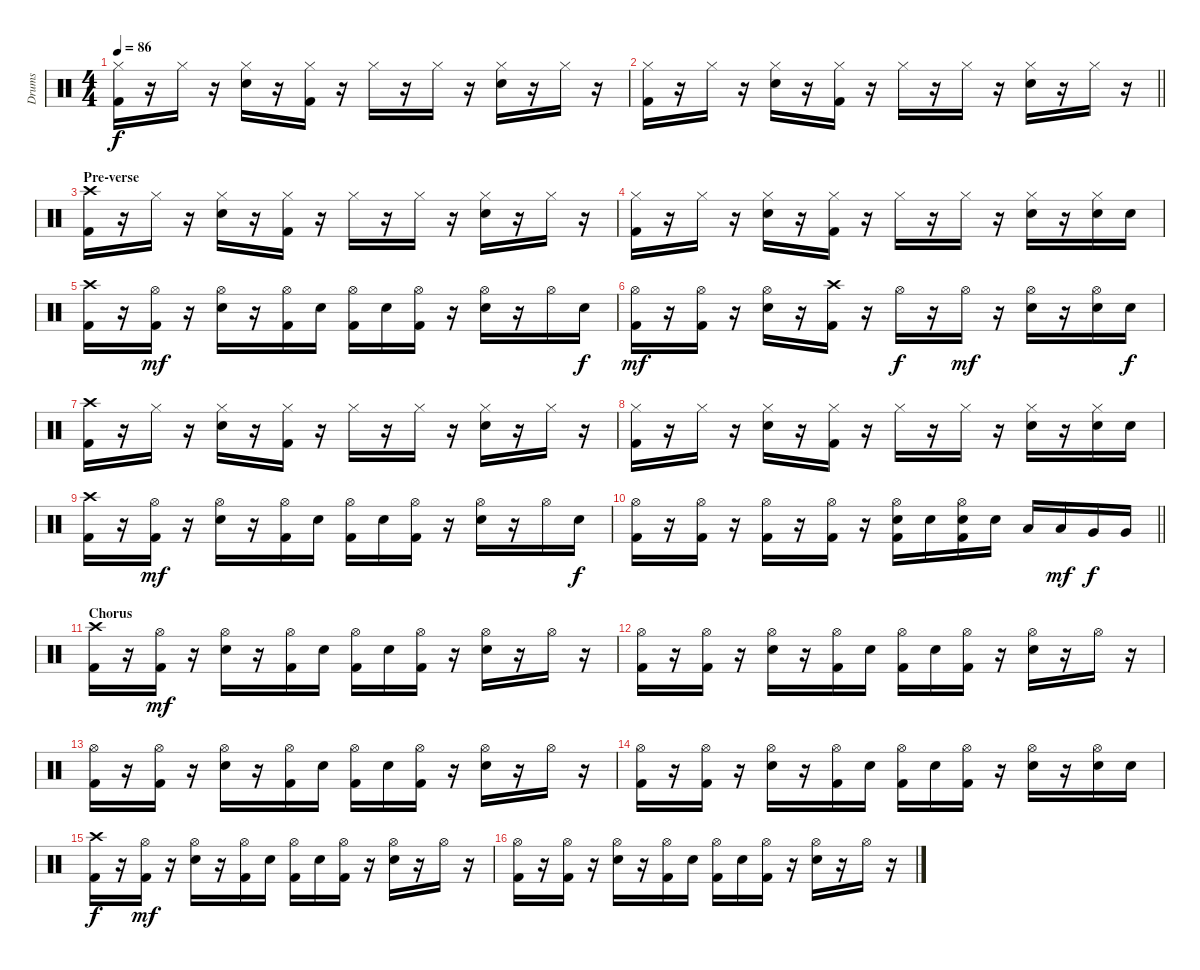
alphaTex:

\track ("Drums" "Drums") {instrument percussion}
\staff {score}
\articulation defaults
\ts (4 4)
\tempo 86
\clef neutral
\ks c
("Hi-Hat (closed)" "Kick (hit) 2").16{dy f} r.16 "Hi-Hat (closed)".16 r.16 ("Hi-Hat (closed)" "Electric Snare (hit)").16 r.16 ("Hi-Hat (closed)" "Kick (hit) 2").16 r.16 "Hi-Hat (closed)".16 r.16 "Hi-Hat (closed)".16 r.16 ("Hi-Hat (closed)" "Electric Snare (hit)").16 r.16 "Hi-Hat (closed)".16 r.16 |
\barLineRight lightlight
("Hi-Hat (closed)" "Kick (hit) 2").16 r.16 "Hi-Hat (closed)".16 r.16 ("Hi-Hat (closed)" "Electric Snare (hit)").16 r.16 ("Hi-Hat (closed)" "Kick (hit) 2").16 r.16 "Hi-Hat (closed)".16 r.16 "Hi-Hat (closed)".16 r.16 ("Hi-Hat (closed)" "Electric Snare (hit)").16 r.16 "Hi-Hat (closed)".16 r.16 |
\section ("" "Pre-verse")
("Crash high (hit)" "Kick (hit) 2").16 r.16 "Hi-Hat (closed)".16 r.16 ("Hi-Hat (closed)" "Electric Snare (hit)").16 r.16 ("Hi-Hat (closed)" "Kick (hit) 2").16 r.16 "Hi-Hat (closed)".16 r.16 "Hi-Hat (closed)".16 r.16 ("Hi-Hat (closed)" "Electric Snare (hit)").16 r.16 "Hi-Hat (closed)".16 r.16 |
("Hi-Hat (closed)" "Kick (hit) 2").16 r.16 "Hi-Hat (closed)".16 r.16 ("Hi-Hat (closed)" "Electric Snare (hit)").16 r.16 ("Hi-Hat (closed)" "Kick (hit) 2").16 r.16 "Hi-Hat (closed)".16 r.16 "Hi-Hat (closed)".16 r.16 ("Hi-Hat (closed)" "Electric Snare (hit)").16 r.16 ("Hi-Hat (closed)" "Electric Snare (hit)").16 "Electric Snare (hit)".16 |
("Crash high (hit)" "Kick (hit) 2").16 r.16 ("Hi-Hat (open)" "Kick (hit) 2").16{dy mf} r.16 ("Hi-Hat (open)" "Electric Snare (hit)").16 r.16 ("Hi-Hat (open)" "Kick (hit) 2").16 "Electric Snare (hit)".16 ("Hi-Hat (open)" "Kick (hit) 2").16 "Electric Snare (hit)".16 ("Hi-Hat (open)" "Kick (hit) 2").16 r.16 ("Hi-Hat (open)" "Electric Snare (hit)").16 r.16 "Hi-Hat (open)".16 "Electric Snare (hit)".16{dy f} |
("Hi-Hat (open)" "Kick (hit) 2").16{dy mf} r.16 ("Hi-Hat (open)" "Kick (hit) 2").16 r.16 ("Hi-Hat (open)" "Electric Snare (hit)").16 r.16 ("Crash high (hit)" "Kick (hit) 2").16 r.16 "Hi-Hat (open)".16{dy f} r.16 "Hi-Hat (open)".16{dy mf} r.16 ("Hi-Hat (open)" "Electric Snare (hit)").16 r.16 ("Hi-Hat (open)" "Electric Snare (hit)").16 "Electric Snare (hit)".16{dy f} |
("Crash high (hit)" "Kick (hit) 2").16 r.16 "Hi-Hat (closed)".16 r.16 ("Hi-Hat (closed)" "Electric Snare (hit)").16 r.16 ("Hi-Hat (closed)" "Kick (hit) 2").16 r.16 "Hi-Hat (closed)".16 r.16 "Hi-Hat (closed)".16 r.16 ("Hi-Hat (closed)" "Electric Snare (hit)").16 r.16 "Hi-Hat (closed)".16 r.16 |
("Hi-Hat (closed)" "Kick (hit) 2").16 r.16 "Hi-Hat (closed)".16 r.16 ("Hi-Hat (closed)" "Electric Snare (hit)").16 r.16 ("Hi-Hat (closed)" "Kick (hit) 2").16 r.16 "Hi-Hat (closed)".16 r.16 "Hi-Hat (closed)".16 r.16 ("Hi-Hat (closed)" "Electric Snare (hit)").16 r.16 ("Hi-Hat (closed)" "Electric Snare (hit)").16 "Electric Snare (hit)".16 |
("Crash high (hit)" "Kick (hit) 2").16 r.16 ("Hi-Hat (open)" "Kick (hit) 2").16{dy mf} r.16 ("Hi-Hat (open)" "Electric Snare (hit)").16 r.16 ("Hi-Hat (open)" "Kick (hit) 2").16 "Electric Snare (hit)".16 ("Hi-Hat (open)" "Kick (hit) 2").16 "Electric Snare (hit)".16 ("Hi-Hat (open)" "Kick (hit) 2").16 r.16 ("Hi-Hat (open)" "Electric Snare (hit)").16 r.16 "Hi-Hat (open)".16 "Electric Snare (hit)".16{dy f} |
\barLineRight lightlight
("Hi-Hat (open)" "Kick (hit) 2").16 r.16 ("Hi-Hat (open)" "Kick (hit) 2").16 r.16 ("Hi-Hat (open)" "Kick (hit) 2").16 r.16 ("Hi-Hat (open)" "Kick (hit) 2").16 r.16 ("Hi-Hat (open)" "Electric Snare (hit)" "Kick (hit) 2").16 "Electric Snare (hit)".16 ("Hi-Hat (open)" "Electric Snare (hit)" "Kick (hit) 2").16 "Electric Snare (hit)".16 "Low Tom (hit)".16 "Low Tom (hit)".16{dy mf} "Very Low Tom (hit)".16{dy f} "Very Low Tom (hit)".16 |
\section ("" "Chorus")
("Crash high (hit)" "Kick (hit) 2").16 r.16 ("Hi-Hat (open)" "Kick (hit) 2").16{dy mf} r.16 ("Hi-Hat (open)" "Electric Snare (hit)").16 r.16 ("Hi-Hat (open)" "Kick (hit) 2").16 "Electric Snare (hit)".16 ("Hi-Hat (open)" "Kick (hit) 2").16 "Electric Snare (hit)".16 ("Hi-Hat (open)" "Kick (hit) 2").16 r.16 ("Hi-Hat (open)" "Electric Snare (hit)").16 r.16 "Hi-Hat (open)".16 r.16 |
("Hi-Hat (open)" "Kick (hit) 2").16 r.16 ("Hi-Hat (open)" "Kick (hit) 2").16 r.16 ("Hi-Hat (open)" "Electric Snare (hit)").16 r.16 ("Hi-Hat (open)" "Kick (hit) 2").16 "Electric Snare (hit)".16 ("Hi-Hat (open)" "Kick (hit) 2").16 "Electric Snare (hit)".16 ("Hi-Hat (open)" "Kick (hit) 2").16 r.16 ("Hi-Hat (open)" "Electric Snare (hit)").16 r.16 "Hi-Hat (open)".16 r.16 |
("Hi-Hat (open)" "Kick (hit) 2").16 r.16 ("Hi-Hat (open)" "Kick (hit) 2").16 r.16 ("Hi-Hat (open)" "Electric Snare (hit)").16 r.16 ("Hi-Hat (open)" "Kick (hit) 2").16 "Electric Snare (hit)".16 ("Hi-Hat (open)" "Kick (hit) 2").16 "Electric Snare (hit)".16 ("Hi-Hat (open)" "Kick (hit) 2").16 r.16 ("Hi-Hat (open)" "Electric Snare (hit)").16 r.16 "Hi-Hat (open)".16 r.16 |
("Hi-Hat (open)" "Kick (hit) 2").16 r.16 ("Hi-Hat (open)" "Kick (hit) 2").16 r.16 ("Hi-Hat (open)" "Electric Snare (hit)").16 r.16 ("Hi-Hat (open)" "Kick (hit) 2").16 "Electric Snare (hit)".16 ("Hi-Hat (open)" "Kick (hit) 2").16 "Electric Snare (hit)".16 ("Hi-Hat (open)" "Kick (hit) 2").16 r.16 ("Hi-Hat (open)" "Electric Snare (hit)").16 r.16 ("Hi-Hat (open)" "Electric Snare (hit)").16 "Electric Snare (hit)".16 |
("Crash high (hit)" "Kick (hit) 2").16{dy f} r.16 ("Hi-Hat (open)" "Kick (hit) 2").16{dy mf} r.16 ("Hi-Hat (open)" "Electric Snare (hit)").16 r.16 ("Hi-Hat (open)" "Kick (hit) 2").16 "Electric Snare (hit)".16 ("Hi-Hat (open)" "Kick (hit) 2").16 "Electric Snare (hit)".16 ("Hi-Hat (open)" "Kick (hit) 2").16 r.16 ("Hi-Hat (open)" "Electric Snare (hit)").16 r.16 "Hi-Hat (open)".16 r.16 |
("Hi-Hat (open)" "Kick (hit) 2").16 r.16 ("Hi-Hat (open)" "Kick (hit) 2").16 r.16 ("Hi-Hat (open)" "Electric Snare (hit)").16 r.16 ("Hi-Hat (open)" "Kick (hit) 2").16 "Electric Snare (hit)".16 ("Hi-Hat (open)" "Kick (hit) 2").16 "Electric Snare (hit)".16 ("Hi-Hat (open)" "Kick (hit) 2").16 r.16 ("Hi-Hat (open)" "Electric Snare (hit)").16 r.16 "Hi-Hat (open)".16 r.16
